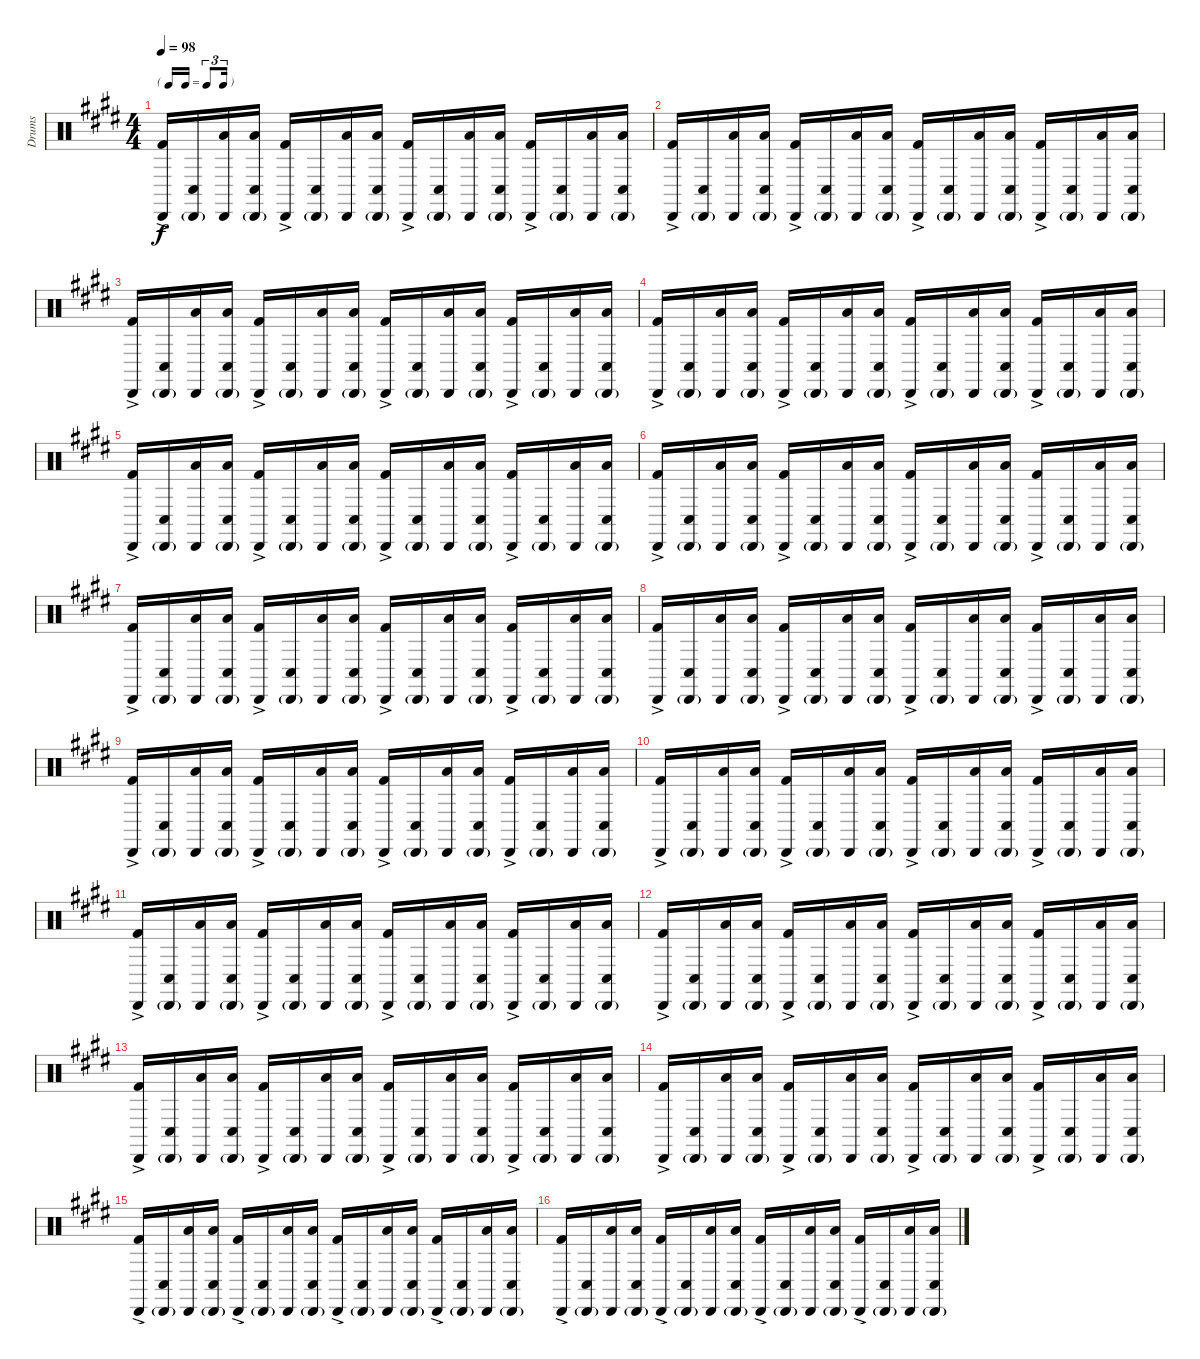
\track ("Drums" "Drums") {instrument percussion}
\staff {score}
\articulation defaults
\ts (4 4)
\tf triplet16th
\tempo 98
\clef neutral
\ks e
("Cabasa (hit)" "Kick (hit) 2"{ac}).16{dy f} ("Cabasa (hit)"{g} "Conga low (hit)").16 ("Cabasa (hit)" "Low Tom (hit)").16 ("Cabasa (hit)"{g} "Low Tom (hit)" "Conga low (hit)").16 ("Cabasa (hit)" "Kick (hit) 2"{ac}).16 ("Cabasa (hit)"{g} "Conga low (hit)").16 ("Cabasa (hit)" "Low Tom (hit)").16 ("Cabasa (hit)"{g} "Low Tom (hit)" "Conga low (hit)").16 ("Cabasa (hit)" "Kick (hit) 2"{ac}).16 ("Cabasa (hit)"{g} "Conga low (hit)").16 ("Cabasa (hit)" "Low Tom (hit)").16 ("Cabasa (hit)"{g} "Low Tom (hit)" "Conga low (hit)").16 ("Cabasa (hit)" "Kick (hit) 2"{ac}).16 ("Cabasa (hit)"{g} "Conga low (hit)").16 ("Cabasa (hit)" "Low Tom (hit)").16 ("Cabasa (hit)"{g} "Low Tom (hit)" "Conga low (hit)").16 |
("Cabasa (hit)" "Kick (hit) 2"{ac}).16 ("Cabasa (hit)"{g} "Conga low (hit)").16 ("Cabasa (hit)" "Low Tom (hit)").16 ("Cabasa (hit)"{g} "Low Tom (hit)" "Conga low (hit)").16 ("Cabasa (hit)" "Kick (hit) 2"{ac}).16 ("Cabasa (hit)"{g} "Conga low (hit)").16 ("Cabasa (hit)" "Low Tom (hit)").16 ("Cabasa (hit)"{g} "Low Tom (hit)" "Conga low (hit)").16 ("Cabasa (hit)" "Kick (hit) 2"{ac}).16 ("Cabasa (hit)"{g} "Conga low (hit)").16 ("Cabasa (hit)" "Low Tom (hit)").16 ("Cabasa (hit)"{g} "Low Tom (hit)" "Conga low (hit)").16 ("Cabasa (hit)" "Kick (hit) 2"{ac}).16 ("Cabasa (hit)"{g} "Conga low (hit)").16 ("Cabasa (hit)" "Low Tom (hit)").16 ("Cabasa (hit)"{g} "Low Tom (hit)" "Conga low (hit)").16 |
("Cabasa (hit)" "Kick (hit) 2"{ac}).16 ("Cabasa (hit)"{g} "Conga low (hit)").16 ("Cabasa (hit)" "Low Tom (hit)").16 ("Cabasa (hit)"{g} "Low Tom (hit)" "Conga low (hit)").16 ("Cabasa (hit)" "Kick (hit) 2"{ac}).16 ("Cabasa (hit)"{g} "Conga low (hit)").16 ("Cabasa (hit)" "Low Tom (hit)").16 ("Cabasa (hit)"{g} "Low Tom (hit)" "Conga low (hit)").16 ("Cabasa (hit)" "Kick (hit) 2"{ac}).16 ("Cabasa (hit)"{g} "Conga low (hit)").16 ("Cabasa (hit)" "Low Tom (hit)").16 ("Cabasa (hit)"{g} "Low Tom (hit)" "Conga low (hit)").16 ("Cabasa (hit)" "Kick (hit) 2"{ac}).16 ("Cabasa (hit)"{g} "Conga low (hit)").16 ("Cabasa (hit)" "Low Tom (hit)").16 ("Cabasa (hit)"{g} "Low Tom (hit)" "Conga low (hit)").16 |
("Cabasa (hit)" "Kick (hit) 2"{ac}).16 ("Cabasa (hit)"{g} "Conga low (hit)").16 ("Cabasa (hit)" "Low Tom (hit)").16 ("Cabasa (hit)"{g} "Low Tom (hit)" "Conga low (hit)").16 ("Cabasa (hit)" "Kick (hit) 2"{ac}).16 ("Cabasa (hit)"{g} "Conga low (hit)").16 ("Cabasa (hit)" "Low Tom (hit)").16 ("Cabasa (hit)"{g} "Low Tom (hit)" "Conga low (hit)").16 ("Cabasa (hit)" "Kick (hit) 2"{ac}).16 ("Cabasa (hit)"{g} "Conga low (hit)").16 ("Cabasa (hit)" "Low Tom (hit)").16 ("Cabasa (hit)"{g} "Low Tom (hit)" "Conga low (hit)").16 ("Cabasa (hit)" "Kick (hit) 2"{ac}).16 ("Cabasa (hit)"{g} "Conga low (hit)").16 ("Cabasa (hit)" "Low Tom (hit)").16 ("Cabasa (hit)"{g} "Low Tom (hit)" "Conga low (hit)").16 |
("Cabasa (hit)" "Kick (hit) 2"{ac}).16 ("Cabasa (hit)"{g} "Conga low (hit)").16 ("Cabasa (hit)" "Low Tom (hit)").16 ("Cabasa (hit)"{g} "Low Tom (hit)" "Conga low (hit)").16 ("Cabasa (hit)" "Kick (hit) 2"{ac}).16 ("Cabasa (hit)"{g} "Conga low (hit)").16 ("Cabasa (hit)" "Low Tom (hit)").16 ("Cabasa (hit)"{g} "Low Tom (hit)" "Conga low (hit)").16 ("Cabasa (hit)" "Kick (hit) 2"{ac}).16 ("Cabasa (hit)"{g} "Conga low (hit)").16 ("Cabasa (hit)" "Low Tom (hit)").16 ("Cabasa (hit)"{g} "Low Tom (hit)" "Conga low (hit)").16 ("Cabasa (hit)" "Kick (hit) 2"{ac}).16 ("Cabasa (hit)"{g} "Conga low (hit)").16 ("Cabasa (hit)" "Low Tom (hit)").16 ("Cabasa (hit)"{g} "Low Tom (hit)" "Conga low (hit)").16 |
("Cabasa (hit)" "Kick (hit) 2"{ac}).16 ("Cabasa (hit)"{g} "Conga low (hit)").16 ("Cabasa (hit)" "Low Tom (hit)").16 ("Cabasa (hit)"{g} "Low Tom (hit)" "Conga low (hit)").16 ("Cabasa (hit)" "Kick (hit) 2"{ac}).16 ("Cabasa (hit)"{g} "Conga low (hit)").16 ("Cabasa (hit)" "Low Tom (hit)").16 ("Cabasa (hit)"{g} "Low Tom (hit)" "Conga low (hit)").16 ("Cabasa (hit)" "Kick (hit) 2"{ac}).16 ("Cabasa (hit)"{g} "Conga low (hit)").16 ("Cabasa (hit)" "Low Tom (hit)").16 ("Cabasa (hit)"{g} "Low Tom (hit)" "Conga low (hit)").16 ("Cabasa (hit)" "Kick (hit) 2"{ac}).16 ("Cabasa (hit)"{g} "Conga low (hit)").16 ("Cabasa (hit)" "Low Tom (hit)").16 ("Cabasa (hit)"{g} "Low Tom (hit)" "Conga low (hit)").16 |
("Cabasa (hit)" "Kick (hit) 2"{ac}).16 ("Cabasa (hit)"{g} "Conga low (hit)").16 ("Cabasa (hit)" "Low Tom (hit)").16 ("Cabasa (hit)"{g} "Low Tom (hit)" "Conga low (hit)").16 ("Cabasa (hit)" "Kick (hit) 2"{ac}).16 ("Cabasa (hit)"{g} "Conga low (hit)").16 ("Cabasa (hit)" "Low Tom (hit)").16 ("Cabasa (hit)"{g} "Low Tom (hit)" "Conga low (hit)").16 ("Cabasa (hit)" "Kick (hit) 2"{ac}).16 ("Cabasa (hit)"{g} "Conga low (hit)").16 ("Cabasa (hit)" "Low Tom (hit)").16 ("Cabasa (hit)"{g} "Low Tom (hit)" "Conga low (hit)").16 ("Cabasa (hit)" "Kick (hit) 2"{ac}).16 ("Cabasa (hit)"{g} "Conga low (hit)").16 ("Cabasa (hit)" "Low Tom (hit)").16 ("Cabasa (hit)"{g} "Low Tom (hit)" "Conga low (hit)").16 |
("Cabasa (hit)" "Kick (hit) 2"{ac}).16 ("Cabasa (hit)"{g} "Conga low (hit)").16 ("Cabasa (hit)" "Low Tom (hit)").16 ("Cabasa (hit)"{g} "Low Tom (hit)" "Conga low (hit)").16 ("Cabasa (hit)" "Kick (hit) 2"{ac}).16 ("Cabasa (hit)"{g} "Conga low (hit)").16 ("Cabasa (hit)" "Low Tom (hit)").16 ("Cabasa (hit)"{g} "Low Tom (hit)" "Conga low (hit)").16 ("Cabasa (hit)" "Kick (hit) 2"{ac}).16 ("Cabasa (hit)"{g} "Conga low (hit)").16 ("Cabasa (hit)" "Low Tom (hit)").16 ("Cabasa (hit)"{g} "Low Tom (hit)" "Conga low (hit)").16 ("Cabasa (hit)" "Kick (hit) 2"{ac}).16 ("Cabasa (hit)"{g} "Conga low (hit)").16 ("Cabasa (hit)" "Low Tom (hit)").16 ("Cabasa (hit)"{g} "Low Tom (hit)" "Conga low (hit)").16 |
("Cabasa (hit)" "Kick (hit) 2"{ac}).16 ("Cabasa (hit)"{g} "Conga low (hit)").16 ("Cabasa (hit)" "Low Tom (hit)").16 ("Cabasa (hit)"{g} "Low Tom (hit)" "Conga low (hit)").16 ("Cabasa (hit)" "Kick (hit) 2"{ac}).16 ("Cabasa (hit)"{g} "Conga low (hit)").16 ("Cabasa (hit)" "Low Tom (hit)").16 ("Cabasa (hit)"{g} "Low Tom (hit)" "Conga low (hit)").16 ("Cabasa (hit)" "Kick (hit) 2"{ac}).16 ("Cabasa (hit)"{g} "Conga low (hit)").16 ("Cabasa (hit)" "Low Tom (hit)").16 ("Cabasa (hit)"{g} "Low Tom (hit)" "Conga low (hit)").16 ("Cabasa (hit)" "Kick (hit) 2"{ac}).16 ("Cabasa (hit)"{g} "Conga low (hit)").16 ("Cabasa (hit)" "Low Tom (hit)").16 ("Cabasa (hit)"{g} "Low Tom (hit)" "Conga low (hit)").16 |
("Cabasa (hit)" "Kick (hit) 2"{ac}).16 ("Cabasa (hit)"{g} "Conga low (hit)").16 ("Cabasa (hit)" "Low Tom (hit)").16 ("Cabasa (hit)"{g} "Low Tom (hit)" "Conga low (hit)").16 ("Cabasa (hit)" "Kick (hit) 2"{ac}).16 ("Cabasa (hit)"{g} "Conga low (hit)").16 ("Cabasa (hit)" "Low Tom (hit)").16 ("Cabasa (hit)"{g} "Low Tom (hit)" "Conga low (hit)").16 ("Cabasa (hit)" "Kick (hit) 2"{ac}).16 ("Cabasa (hit)"{g} "Conga low (hit)").16 ("Cabasa (hit)" "Low Tom (hit)").16 ("Cabasa (hit)"{g} "Low Tom (hit)" "Conga low (hit)").16 ("Cabasa (hit)" "Kick (hit) 2"{ac}).16 ("Cabasa (hit)"{g} "Conga low (hit)").16 ("Cabasa (hit)" "Low Tom (hit)").16 ("Cabasa (hit)"{g} "Low Tom (hit)" "Conga low (hit)").16 |
("Cabasa (hit)" "Kick (hit) 2"{ac}).16 ("Cabasa (hit)"{g} "Conga low (hit)").16 ("Cabasa (hit)" "Low Tom (hit)").16 ("Cabasa (hit)"{g} "Low Tom (hit)" "Conga low (hit)").16 ("Cabasa (hit)" "Kick (hit) 2"{ac}).16 ("Cabasa (hit)"{g} "Conga low (hit)").16 ("Cabasa (hit)" "Low Tom (hit)").16 ("Cabasa (hit)"{g} "Low Tom (hit)" "Conga low (hit)").16 ("Cabasa (hit)" "Kick (hit) 2"{ac}).16 ("Cabasa (hit)"{g} "Conga low (hit)").16 ("Cabasa (hit)" "Low Tom (hit)").16 ("Cabasa (hit)"{g} "Low Tom (hit)" "Conga low (hit)").16 ("Cabasa (hit)" "Kick (hit) 2"{ac}).16 ("Cabasa (hit)"{g} "Conga low (hit)").16 ("Cabasa (hit)" "Low Tom (hit)").16 ("Cabasa (hit)"{g} "Low Tom (hit)" "Conga low (hit)").16 |
("Cabasa (hit)" "Kick (hit) 2"{ac}).16 ("Cabasa (hit)"{g} "Conga low (hit)").16 ("Cabasa (hit)" "Low Tom (hit)").16 ("Cabasa (hit)"{g} "Low Tom (hit)" "Conga low (hit)").16 ("Cabasa (hit)" "Kick (hit) 2"{ac}).16 ("Cabasa (hit)"{g} "Conga low (hit)").16 ("Cabasa (hit)" "Low Tom (hit)").16 ("Cabasa (hit)"{g} "Low Tom (hit)" "Conga low (hit)").16 ("Cabasa (hit)" "Kick (hit) 2"{ac}).16 ("Cabasa (hit)"{g} "Conga low (hit)").16 ("Cabasa (hit)" "Low Tom (hit)").16 ("Cabasa (hit)"{g} "Low Tom (hit)" "Conga low (hit)").16 ("Cabasa (hit)" "Kick (hit) 2"{ac}).16 ("Cabasa (hit)"{g} "Conga low (hit)").16 ("Cabasa (hit)" "Low Tom (hit)").16 ("Cabasa (hit)"{g} "Low Tom (hit)" "Conga low (hit)").16 |
("Cabasa (hit)" "Kick (hit) 2"{ac}).16 ("Cabasa (hit)"{g} "Conga low (hit)").16 ("Cabasa (hit)" "Low Tom (hit)").16 ("Cabasa (hit)"{g} "Low Tom (hit)" "Conga low (hit)").16 ("Cabasa (hit)" "Kick (hit) 2"{ac}).16 ("Cabasa (hit)"{g} "Conga low (hit)").16 ("Cabasa (hit)" "Low Tom (hit)").16 ("Cabasa (hit)"{g} "Low Tom (hit)" "Conga low (hit)").16 ("Cabasa (hit)" "Kick (hit) 2"{ac}).16 ("Cabasa (hit)"{g} "Conga low (hit)").16 ("Cabasa (hit)" "Low Tom (hit)").16 ("Cabasa (hit)"{g} "Low Tom (hit)" "Conga low (hit)").16 ("Cabasa (hit)" "Kick (hit) 2"{ac}).16 ("Cabasa (hit)"{g} "Conga low (hit)").16 ("Cabasa (hit)" "Low Tom (hit)").16 ("Cabasa (hit)"{g} "Low Tom (hit)" "Conga low (hit)").16 |
("Cabasa (hit)" "Kick (hit) 2"{ac}).16 ("Cabasa (hit)"{g} "Conga low (hit)").16 ("Cabasa (hit)" "Low Tom (hit)").16 ("Cabasa (hit)"{g} "Low Tom (hit)" "Conga low (hit)").16 ("Cabasa (hit)" "Kick (hit) 2"{ac}).16 ("Cabasa (hit)"{g} "Conga low (hit)").16 ("Cabasa (hit)" "Low Tom (hit)").16 ("Cabasa (hit)"{g} "Low Tom (hit)" "Conga low (hit)").16 ("Cabasa (hit)" "Kick (hit) 2"{ac}).16 ("Cabasa (hit)"{g} "Conga low (hit)").16 ("Cabasa (hit)" "Low Tom (hit)").16 ("Cabasa (hit)"{g} "Low Tom (hit)" "Conga low (hit)").16 ("Cabasa (hit)" "Kick (hit) 2"{ac}).16 ("Cabasa (hit)"{g} "Conga low (hit)").16 ("Cabasa (hit)" "Low Tom (hit)").16 ("Cabasa (hit)"{g} "Low Tom (hit)" "Conga low (hit)").16 |
("Cabasa (hit)" "Kick (hit) 2"{ac}).16 ("Cabasa (hit)"{g} "Conga low (hit)").16 ("Cabasa (hit)" "Low Tom (hit)").16 ("Cabasa (hit)"{g} "Low Tom (hit)" "Conga low (hit)").16 ("Cabasa (hit)" "Kick (hit) 2"{ac}).16 ("Cabasa (hit)"{g} "Conga low (hit)").16 ("Cabasa (hit)" "Low Tom (hit)").16 ("Cabasa (hit)"{g} "Low Tom (hit)" "Conga low (hit)").16 ("Cabasa (hit)" "Kick (hit) 2"{ac}).16 ("Cabasa (hit)"{g} "Conga low (hit)").16 ("Cabasa (hit)" "Low Tom (hit)").16 ("Cabasa (hit)"{g} "Low Tom (hit)" "Conga low (hit)").16 ("Cabasa (hit)" "Kick (hit) 2"{ac}).16 ("Cabasa (hit)"{g} "Conga low (hit)").16 ("Cabasa (hit)" "Low Tom (hit)").16 ("Cabasa (hit)"{g} "Low Tom (hit)" "Conga low (hit)").16 |
("Cabasa (hit)" "Kick (hit) 2"{ac}).16 ("Cabasa (hit)"{g} "Conga low (hit)").16 ("Cabasa (hit)" "Low Tom (hit)").16 ("Cabasa (hit)"{g} "Low Tom (hit)" "Conga low (hit)").16 ("Cabasa (hit)" "Kick (hit) 2"{ac}).16 ("Cabasa (hit)"{g} "Conga low (hit)").16 ("Cabasa (hit)" "Low Tom (hit)").16 ("Cabasa (hit)"{g} "Low Tom (hit)" "Conga low (hit)").16 ("Cabasa (hit)" "Kick (hit) 2"{ac}).16 ("Cabasa (hit)"{g} "Conga low (hit)").16 ("Cabasa (hit)" "Low Tom (hit)").16 ("Cabasa (hit)"{g} "Low Tom (hit)" "Conga low (hit)").16 ("Cabasa (hit)" "Kick (hit) 2"{ac}).16 ("Cabasa (hit)"{g} "Conga low (hit)").16 ("Cabasa (hit)" "Low Tom (hit)").16 ("Cabasa (hit)"{g} "Low Tom (hit)" "Conga low (hit)").16
